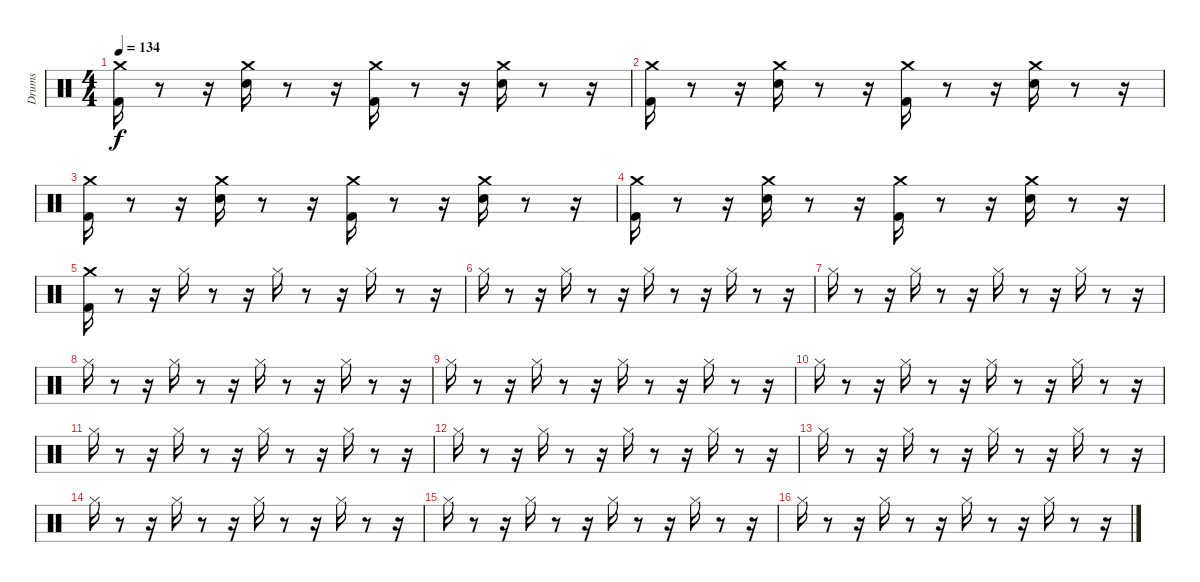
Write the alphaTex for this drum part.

\track ("Drums               " "Drums     ") {instrument percussion}
\staff {score}
\articulation defaults
\ts (4 4)
\tempo 134
\clef neutral
\ks c
("Kick (hit) 2" "Crash medium (hit)").16{dy f} r.8 r.16 ("Snare (hit) 2" "Crash medium (hit)").16 r.8 r.16 ("Kick (hit) 2" "Crash medium (hit)").16 r.8 r.16 ("Snare (hit) 2" "Crash medium (hit)").16 r.8 r.16 |
("Kick (hit) 2" "Crash medium (hit)").16 r.8 r.16 ("Snare (hit) 2" "Crash medium (hit)").16 r.8 r.16 ("Kick (hit) 2" "Crash medium (hit)").16 r.8 r.16 ("Snare (hit) 2" "Crash medium (hit)").16 r.8 r.16 |
("Kick (hit) 2" "Crash medium (hit)").16 r.8 r.16 ("Snare (hit) 2" "Crash medium (hit)").16 r.8 r.16 ("Kick (hit) 2" "Crash medium (hit)").16 r.8 r.16 ("Snare (hit) 2" "Crash medium (hit)").16 r.8 r.16 |
("Kick (hit) 2" "Crash medium (hit)").16 r.8 r.16 ("Snare (hit) 2" "Crash medium (hit)").16 r.8 r.16 ("Kick (hit) 2" "Crash medium (hit)").16 r.8 r.16 ("Snare (hit) 2" "Crash medium (hit)").16 r.8 r.16 |
("Kick (hit) 2" "Crash medium (hit)").16 r.8 r.16 "Hi-Hat (closed)".16 r.8 r.16 "Hi-Hat (closed)".16 r.8 r.16 "Hi-Hat (closed)".16 r.8 r.16 |
"Hi-Hat (closed)".16 r.8 r.16 "Hi-Hat (closed)".16 r.8 r.16 "Hi-Hat (closed)".16 r.8 r.16 "Hi-Hat (closed)".16 r.8 r.16 |
"Hi-Hat (closed)".16 r.8 r.16 "Hi-Hat (closed)".16 r.8 r.16 "Hi-Hat (closed)".16 r.8 r.16 "Hi-Hat (closed)".16 r.8 r.16 |
"Hi-Hat (closed)".16 r.8 r.16 "Hi-Hat (closed)".16 r.8 r.16 "Hi-Hat (closed)".16 r.8 r.16 "Hi-Hat (closed)".16 r.8 r.16 |
"Hi-Hat (closed)".16 r.8 r.16 "Hi-Hat (closed)".16 r.8 r.16 "Hi-Hat (closed)".16 r.8 r.16 "Hi-Hat (closed)".16 r.8 r.16 |
"Hi-Hat (closed)".16 r.8 r.16 "Hi-Hat (closed)".16 r.8 r.16 "Hi-Hat (closed)".16 r.8 r.16 "Hi-Hat (closed)".16 r.8 r.16 |
"Hi-Hat (closed)".16 r.8 r.16 "Hi-Hat (closed)".16 r.8 r.16 "Hi-Hat (closed)".16 r.8 r.16 "Hi-Hat (closed)".16 r.8 r.16 |
"Hi-Hat (closed)".16 r.8 r.16 "Hi-Hat (closed)".16 r.8 r.16 "Hi-Hat (closed)".16 r.8 r.16 "Hi-Hat (closed)".16 r.8 r.16 |
"Hi-Hat (closed)".16 r.8 r.16 "Hi-Hat (closed)".16 r.8 r.16 "Hi-Hat (closed)".16 r.8 r.16 "Hi-Hat (closed)".16 r.8 r.16 |
"Hi-Hat (closed)".16 r.8 r.16 "Hi-Hat (closed)".16 r.8 r.16 "Hi-Hat (closed)".16 r.8 r.16 "Hi-Hat (closed)".16 r.8 r.16 |
"Hi-Hat (closed)".16 r.8 r.16 "Hi-Hat (closed)".16 r.8 r.16 "Hi-Hat (closed)".16 r.8 r.16 "Hi-Hat (closed)".16 r.8 r.16 |
"Hi-Hat (closed)".16 r.8 r.16 "Hi-Hat (closed)".16 r.8 r.16 "Hi-Hat (closed)".16 r.8 r.16 "Hi-Hat (closed)".16 r.8 r.16
